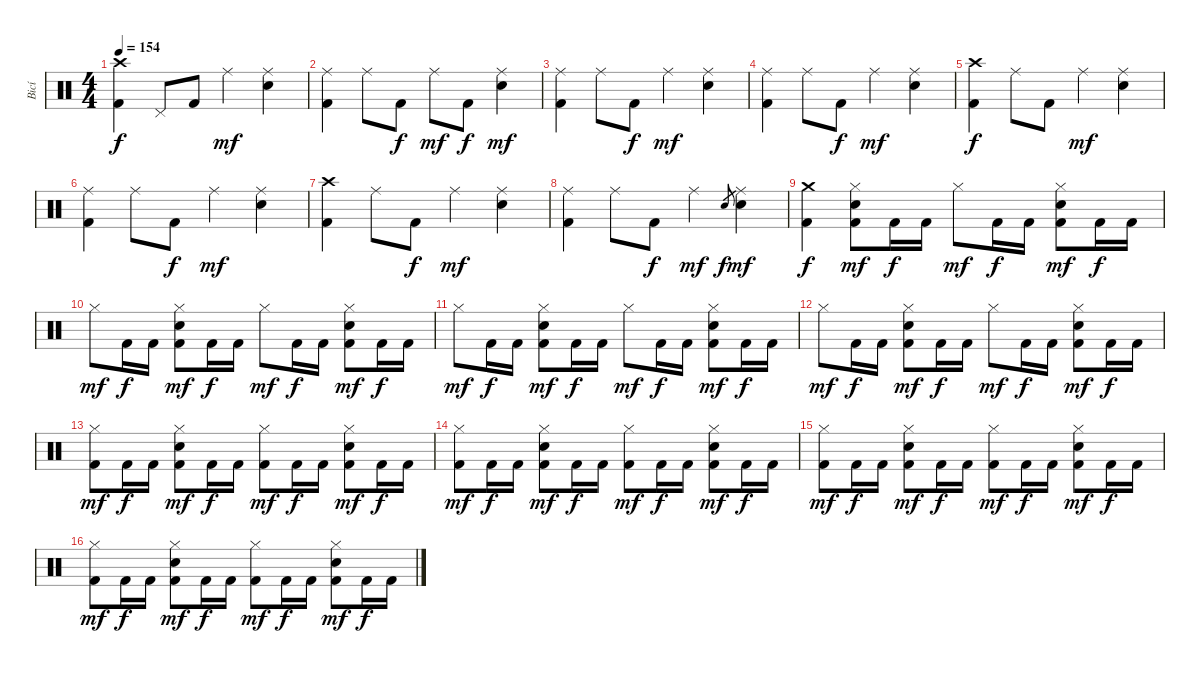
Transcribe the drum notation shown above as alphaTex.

\track ("Bicí" "Bicí") {instrument percussion}
\staff {score}
\articulation defaults
\ts (4 4)
\tempo 154
\clef neutral
\ks c
("Crash high (hit)" "Kick (hit) 2").4{dy f} "Pedal Hi-Hat (hit)".8 "Kick (hit) 2".8 "Ride (middle)".4{dy mf} ("Ride (middle)" "Electric Snare (hit)").4 |
("Ride (middle)" "Kick (hit) 2").4 "Ride (middle)".8 "Kick (hit) 2".8{dy f} "Ride (middle)".8{dy mf} "Kick (hit) 2".8{dy f} ("Ride (middle)" "Electric Snare (hit)").4{dy mf} |
("Ride (middle)" "Kick (hit) 2").4 "Ride (middle)".8 "Kick (hit) 2".8{dy f} "Ride (middle)".4{dy mf} ("Ride (middle)" "Electric Snare (hit)").4 |
("Ride (middle)" "Kick (hit) 2").4 "Ride (middle)".8 "Kick (hit) 2".8{dy f} "Ride (middle)".4{dy mf} ("Ride (middle)" "Electric Snare (hit)").4 |
("Crash high (hit)" "Kick (hit) 2").4{dy f} "Ride (middle)".8 "Kick (hit) 2".8 "Ride (middle)".4{dy mf} ("Ride (middle)" "Electric Snare (hit)").4 |
("Ride (middle)" "Kick (hit) 2").4 "Ride (middle)".8 "Kick (hit) 2".8{dy f} "Ride (middle)".4{dy mf} ("Ride (middle)" "Electric Snare (hit)").4 |
("Crash high (hit)" "Kick (hit) 2").4 "Ride (middle)".8 "Kick (hit) 2".8{dy f} "Ride (middle)".4{dy mf} ("Ride (middle)" "Electric Snare (hit)").4 |
("Ride (middle)" "Kick (hit) 2").4 "Ride (middle)".8 "Kick (hit) 2".8{dy f} "Ride (middle)".4{dy mf} "Snare (hit) 2".8{gr dy f} ("Ride (middle)" "Electric Snare (hit)").4{dy mf} |
("Crash medium (hit)" "Kick (hit) 2").4{dy f} ("Hi-Hat (closed)" "Kick (hit) 2" "Electric Snare (hit)").8{dy mf} "Kick (hit) 2".16{dy f} "Kick (hit) 2".16 "Hi-Hat (closed)".8{dy mf} "Kick (hit) 2".16{dy f} "Kick (hit) 2".16 ("Hi-Hat (closed)" "Kick (hit) 2" "Electric Snare (hit)").8{dy mf} "Kick (hit) 2".16{dy f} "Kick (hit) 2".16 |
"Hi-Hat (closed)".8{dy mf} "Kick (hit) 2".16{dy f} "Kick (hit) 2".16 ("Hi-Hat (closed)" "Kick (hit) 2" "Electric Snare (hit)").8{dy mf} "Kick (hit) 2".16{dy f} "Kick (hit) 2".16 "Hi-Hat (closed)".8{dy mf} "Kick (hit) 2".16{dy f} "Kick (hit) 2".16 ("Hi-Hat (closed)" "Kick (hit) 2" "Electric Snare (hit)").8{dy mf} "Kick (hit) 2".16{dy f} "Kick (hit) 2".16 |
"Hi-Hat (closed)".8{dy mf} "Kick (hit) 2".16{dy f} "Kick (hit) 2".16 ("Hi-Hat (closed)" "Kick (hit) 2" "Electric Snare (hit)").8{dy mf} "Kick (hit) 2".16{dy f} "Kick (hit) 2".16 "Hi-Hat (closed)".8{dy mf} "Kick (hit) 2".16{dy f} "Kick (hit) 2".16 ("Hi-Hat (closed)" "Kick (hit) 2" "Electric Snare (hit)").8{dy mf} "Kick (hit) 2".16{dy f} "Kick (hit) 2".16 |
"Hi-Hat (closed)".8{dy mf} "Kick (hit) 2".16{dy f} "Kick (hit) 2".16 ("Hi-Hat (closed)" "Kick (hit) 2" "Electric Snare (hit)").8{dy mf} "Kick (hit) 2".16{dy f} "Kick (hit) 2".16 "Hi-Hat (closed)".8{dy mf} "Kick (hit) 2".16{dy f} "Kick (hit) 2".16 ("Hi-Hat (closed)" "Kick (hit) 2" "Electric Snare (hit)").8{dy mf} "Kick (hit) 2".16{dy f} "Kick (hit) 2".16 |
("Hi-Hat (closed)" "Kick (hit) 2").8{dy mf} "Kick (hit) 2".16{dy f} "Kick (hit) 2".16 ("Hi-Hat (closed)" "Kick (hit) 2" "Electric Snare (hit)").8{dy mf} "Kick (hit) 2".16{dy f} "Kick (hit) 2".16 ("Hi-Hat (closed)" "Kick (hit) 2").8{dy mf} "Kick (hit) 2".16{dy f} "Kick (hit) 2".16 ("Hi-Hat (closed)" "Kick (hit) 2" "Electric Snare (hit)").8{dy mf} "Kick (hit) 2".16{dy f} "Kick (hit) 2".16 |
("Hi-Hat (closed)" "Kick (hit) 2").8{dy mf} "Kick (hit) 2".16{dy f} "Kick (hit) 2".16 ("Hi-Hat (closed)" "Kick (hit) 2" "Electric Snare (hit)").8{dy mf} "Kick (hit) 2".16{dy f} "Kick (hit) 2".16 ("Hi-Hat (closed)" "Kick (hit) 2").8{dy mf} "Kick (hit) 2".16{dy f} "Kick (hit) 2".16 ("Hi-Hat (closed)" "Kick (hit) 2" "Electric Snare (hit)").8{dy mf} "Kick (hit) 2".16{dy f} "Kick (hit) 2".16 |
("Hi-Hat (closed)" "Kick (hit) 2").8{dy mf} "Kick (hit) 2".16{dy f} "Kick (hit) 2".16 ("Hi-Hat (closed)" "Kick (hit) 2" "Electric Snare (hit)").8{dy mf} "Kick (hit) 2".16{dy f} "Kick (hit) 2".16 ("Hi-Hat (closed)" "Kick (hit) 2").8{dy mf} "Kick (hit) 2".16{dy f} "Kick (hit) 2".16 ("Hi-Hat (closed)" "Kick (hit) 2" "Electric Snare (hit)").8{dy mf} "Kick (hit) 2".16{dy f} "Kick (hit) 2".16 |
("Hi-Hat (closed)" "Kick (hit) 2").8{dy mf} "Kick (hit) 2".16{dy f} "Kick (hit) 2".16 ("Hi-Hat (closed)" "Kick (hit) 2" "Electric Snare (hit)").8{dy mf} "Kick (hit) 2".16{dy f} "Kick (hit) 2".16 ("Hi-Hat (closed)" "Kick (hit) 2").8{dy mf} "Kick (hit) 2".16{dy f} "Kick (hit) 2".16 ("Hi-Hat (closed)" "Kick (hit) 2" "Electric Snare (hit)").8{dy mf} "Kick (hit) 2".16{dy f} "Kick (hit) 2".16
